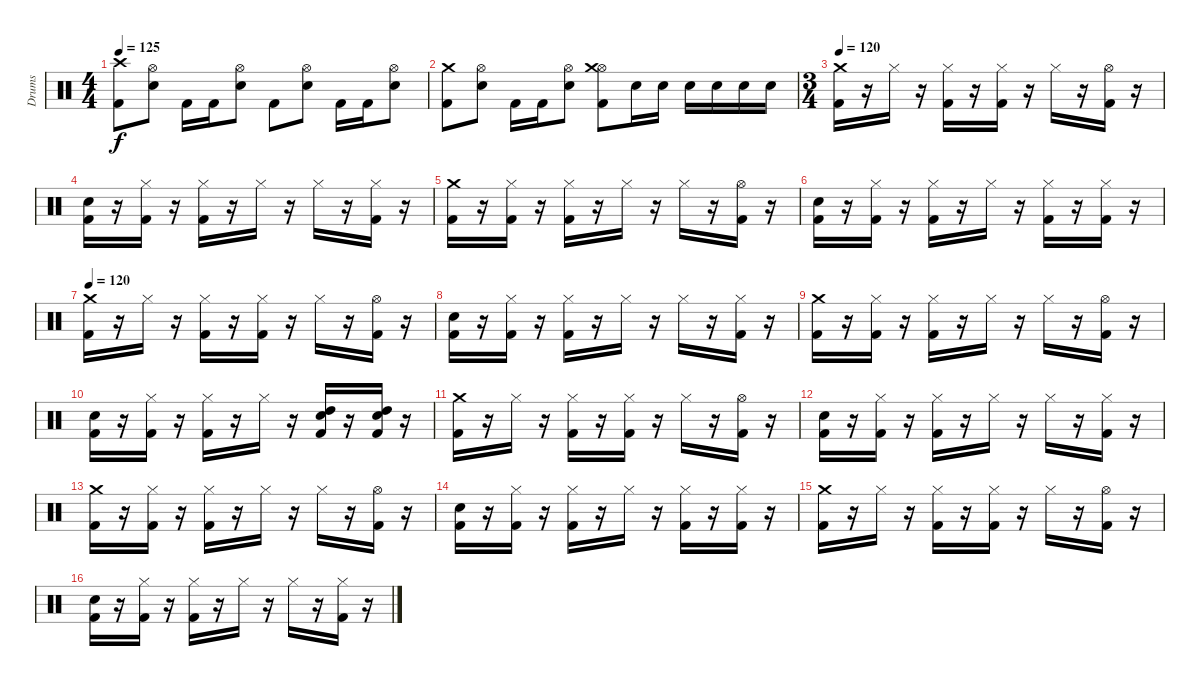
\track ("Drums" "Drums") {instrument percussion}
\staff {score}
\articulation defaults
\ts (4 4)
\tempo 125
\clef neutral
\ks c
("Crash high (hit)" "Kick (hit) 2").8{dy f} ("Hi-Hat (open)" "Snare (hit) 2").8 "Kick (hit) 2".16 "Kick (hit) 2".16 ("Hi-Hat (open)" "Snare (hit) 2").8 "Kick (hit) 2".8 ("Hi-Hat (open)" "Snare (hit) 2").8 "Kick (hit) 2".16 "Kick (hit) 2".16 ("Hi-Hat (open)" "Snare (hit) 2").8 |
("Crash medium (hit)" "Kick (hit) 2").8 ("Hi-Hat (open)" "Snare (hit) 2").8 "Kick (hit) 2".16 "Kick (hit) 2".16 ("Hi-Hat (open)" "Snare (hit) 2").8 ("Hi-Hat (open)" "Crash medium (hit)" "Kick (hit) 2").8 "Electric Snare (hit)".16 "Electric Snare (hit)".16 "Electric Snare (hit)".16 "Electric Snare (hit)".16 "Electric Snare (hit)".16 "Electric Snare (hit)".16 |
\ts (3 4)
\tempo 100
\tempo 120
("Crash medium (hit)" "Kick (hit) 2").16 r.16 "Hi-Hat (closed)".16 r.16 ("Hi-Hat (closed)" "Kick (hit) 2").16 r.16 ("Hi-Hat (closed)" "Kick (hit) 2").16 r.16 "Hi-Hat (closed)".16 r.16 ("Hi-Hat (open)" "Kick (hit) 2").16 r.16 |
("Electric Snare (hit)" "Kick (hit) 2").16 r.16 ("Hi-Hat (closed)" "Kick (hit) 2").16 r.16 ("Hi-Hat (closed)" "Kick (hit) 2").16 r.16 "Hi-Hat (closed)".16 r.16 "Hi-Hat (closed)".16 r.16 ("Hi-Hat (closed)" "Kick (hit) 2").16 r.16 |
("Crash medium (hit)" "Kick (hit) 2").16 r.16 ("Hi-Hat (closed)" "Kick (hit) 2").16 r.16 ("Hi-Hat (closed)" "Kick (hit) 2").16 r.16 "Hi-Hat (closed)".16 r.16 "Hi-Hat (closed)".16 r.16 ("Hi-Hat (open)" "Kick (hit) 2").16 r.16 |
("Electric Snare (hit)" "Kick (hit) 2").16 r.16 ("Hi-Hat (closed)" "Kick (hit) 2").16 r.16 ("Hi-Hat (closed)" "Kick (hit) 2").16 r.16 "Hi-Hat (closed)".16 r.16 ("Hi-Hat (closed)" "Kick (hit) 2").16 r.16 ("Hi-Hat (closed)" "Kick (hit) 2").16 r.16 |
\tempo 100
\tempo 120
("Crash medium (hit)" "Kick (hit) 2").16 r.16 "Hi-Hat (closed)".16 r.16 ("Hi-Hat (closed)" "Kick (hit) 2").16 r.16 ("Hi-Hat (closed)" "Kick (hit) 2").16 r.16 "Hi-Hat (closed)".16 r.16 ("Hi-Hat (open)" "Kick (hit) 2").16 r.16 |
("Electric Snare (hit)" "Kick (hit) 2").16 r.16 ("Hi-Hat (closed)" "Kick (hit) 2").16 r.16 ("Hi-Hat (closed)" "Kick (hit) 2").16 r.16 "Hi-Hat (closed)".16 r.16 "Hi-Hat (closed)".16 r.16 ("Hi-Hat (closed)" "Kick (hit) 2").16 r.16 |
("Crash medium (hit)" "Kick (hit) 2").16 r.16 ("Hi-Hat (closed)" "Kick (hit) 2").16 r.16 ("Hi-Hat (closed)" "Kick (hit) 2").16 r.16 "Hi-Hat (closed)".16 r.16 "Hi-Hat (closed)".16 r.16 ("Hi-Hat (open)" "Kick (hit) 2").16 r.16 |
("Electric Snare (hit)" "Kick (hit) 2").16 r.16 ("Hi-Hat (closed)" "Kick (hit) 2").16 r.16 ("Hi-Hat (closed)" "Kick (hit) 2").16 r.16 "Hi-Hat (closed)".16 r.16 ("Electric Snare (hit)" "High Tom (hit)" "Kick (hit) 2").16 r.16 ("Electric Snare (hit)" "High Tom (hit)" "Kick (hit) 2").16 r.16 |
("Crash medium (hit)" "Kick (hit) 2").16 r.16 "Hi-Hat (closed)".16 r.16 ("Hi-Hat (closed)" "Kick (hit) 2").16 r.16 ("Hi-Hat (closed)" "Kick (hit) 2").16 r.16 "Hi-Hat (closed)".16 r.16 ("Hi-Hat (open)" "Kick (hit) 2").16 r.16 |
("Electric Snare (hit)" "Kick (hit) 2").16 r.16 ("Hi-Hat (closed)" "Kick (hit) 2").16 r.16 ("Hi-Hat (closed)" "Kick (hit) 2").16 r.16 "Hi-Hat (closed)".16 r.16 "Hi-Hat (closed)".16 r.16 ("Hi-Hat (closed)" "Kick (hit) 2").16 r.16 |
("Crash medium (hit)" "Kick (hit) 2").16 r.16 ("Hi-Hat (closed)" "Kick (hit) 2").16 r.16 ("Hi-Hat (closed)" "Kick (hit) 2").16 r.16 "Hi-Hat (closed)".16 r.16 "Hi-Hat (closed)".16 r.16 ("Hi-Hat (open)" "Kick (hit) 2").16 r.16 |
("Electric Snare (hit)" "Kick (hit) 2").16 r.16 ("Hi-Hat (closed)" "Kick (hit) 2").16 r.16 ("Hi-Hat (closed)" "Kick (hit) 2").16 r.16 "Hi-Hat (closed)".16 r.16 ("Hi-Hat (closed)" "Kick (hit) 2").16 r.16 ("Hi-Hat (closed)" "Kick (hit) 2").16 r.16 |
("Crash medium (hit)" "Kick (hit) 2").16 r.16 "Hi-Hat (closed)".16 r.16 ("Hi-Hat (closed)" "Kick (hit) 2").16 r.16 ("Hi-Hat (closed)" "Kick (hit) 2").16 r.16 "Hi-Hat (closed)".16 r.16 ("Hi-Hat (open)" "Kick (hit) 2").16 r.16 |
("Electric Snare (hit)" "Kick (hit) 2").16 r.16 ("Hi-Hat (closed)" "Kick (hit) 2").16 r.16 ("Hi-Hat (closed)" "Kick (hit) 2").16 r.16 "Hi-Hat (closed)".16 r.16 "Hi-Hat (closed)".16 r.16 ("Hi-Hat (closed)" "Kick (hit) 2").16 r.16
